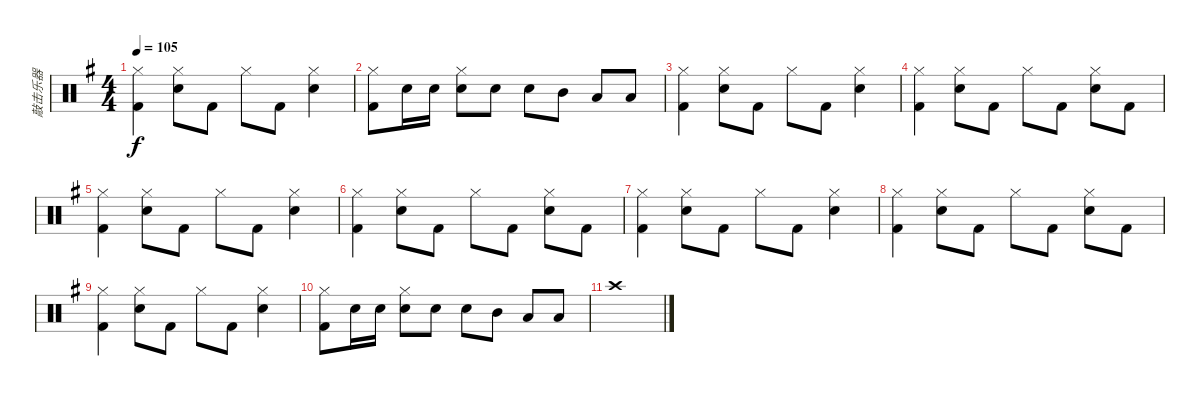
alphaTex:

\track ("敲击乐器" "敲击乐器") {instrument percussion}
\staff {score}
\articulation defaults
\ts (4 4)
\tempo 105
\clef neutral
\ks g
("Hi-Hat (closed)" "Kick (hit) 2").4{dy f} ("Hi-Hat (closed)" "Snare (hit) 2").8 "Kick (hit) 2".8 "Hi-Hat (closed)".8 "Kick (hit) 2".8 ("Hi-Hat (closed)" "Snare (hit) 2").4 |
("Hi-Hat (closed)" "Kick (hit) 2").8 "Snare (hit) 2".16 "Snare (hit) 2".16 ("Hi-Hat (closed)" "Snare (hit) 2").8 "Snare (hit) 2".8 "Snare (hit) 2".8 "Mid Tom (hit)".8 "Low Tom (hit)".8 "Low Floor Tom (hit)".8 |
("Hi-Hat (closed)" "Kick (hit) 2").4 ("Hi-Hat (closed)" "Snare (hit) 2").8 "Kick (hit) 2".8 "Hi-Hat (closed)".8 "Kick (hit) 2".8 ("Hi-Hat (closed)" "Snare (hit) 2").4 |
("Hi-Hat (closed)" "Kick (hit) 2").4 ("Hi-Hat (closed)" "Snare (hit) 2").8 "Kick (hit) 2".8 "Hi-Hat (closed)".8 "Kick (hit) 2".8 ("Hi-Hat (closed)" "Snare (hit) 2").8 "Kick (hit) 2".8 |
("Hi-Hat (closed)" "Kick (hit) 2").4 ("Hi-Hat (closed)" "Snare (hit) 2").8 "Kick (hit) 2".8 "Hi-Hat (closed)".8 "Kick (hit) 2".8 ("Hi-Hat (closed)" "Snare (hit) 2").4 |
("Hi-Hat (closed)" "Kick (hit) 2").4 ("Hi-Hat (closed)" "Snare (hit) 2").8 "Kick (hit) 2".8 "Hi-Hat (closed)".8 "Kick (hit) 2".8 ("Hi-Hat (closed)" "Snare (hit) 2").8 "Kick (hit) 2".8 |
("Hi-Hat (closed)" "Kick (hit) 2").4 ("Hi-Hat (closed)" "Snare (hit) 2").8 "Kick (hit) 2".8 "Hi-Hat (closed)".8 "Kick (hit) 2".8 ("Hi-Hat (closed)" "Snare (hit) 2").4 |
("Hi-Hat (closed)" "Kick (hit) 2").4 ("Hi-Hat (closed)" "Snare (hit) 2").8 "Kick (hit) 2".8 "Hi-Hat (closed)".8 "Kick (hit) 2".8 ("Hi-Hat (closed)" "Snare (hit) 2").8 "Kick (hit) 2".8 |
("Hi-Hat (closed)" "Kick (hit) 2").4 ("Hi-Hat (closed)" "Snare (hit) 2").8 "Kick (hit) 2".8 "Hi-Hat (closed)".8 "Kick (hit) 2".8 ("Hi-Hat (closed)" "Snare (hit) 2").4 |
("Hi-Hat (closed)" "Kick (hit) 2").8 "Snare (hit) 2".16 "Snare (hit) 2".16 ("Hi-Hat (closed)" "Snare (hit) 2").8 "Snare (hit) 2".8 "Snare (hit) 2".8 "Mid Tom (hit)".8 "Low Tom (hit)".8 "Low Floor Tom (hit)".8 |
"Crash high (hit)".1
